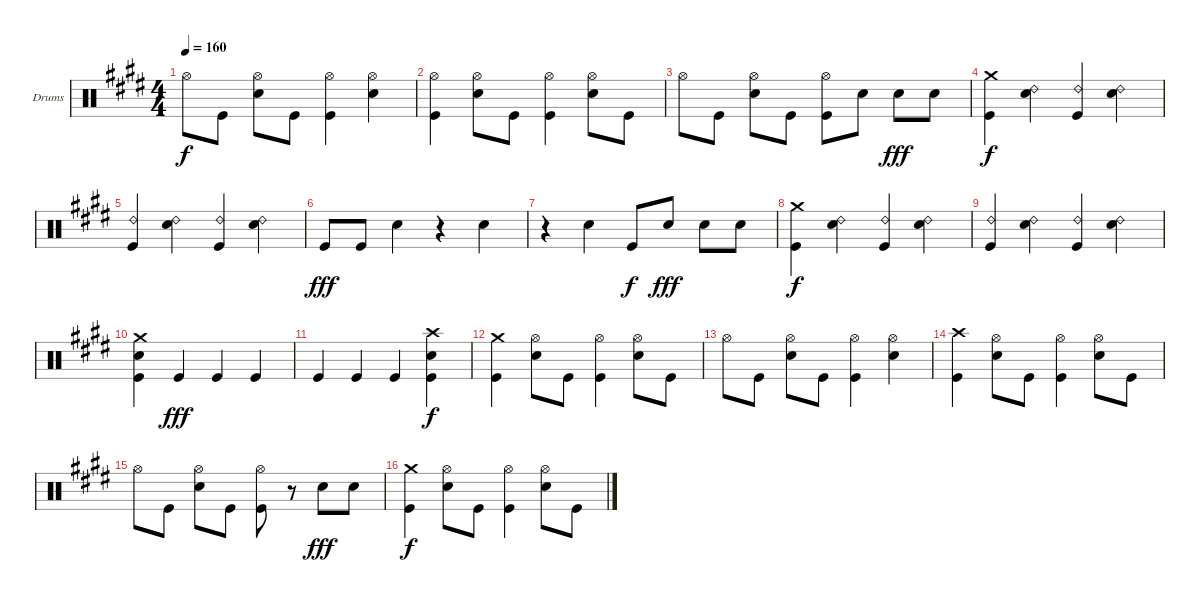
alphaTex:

\bracketExtendMode groupsimilarinstruments
\firstSystemTrackNameOrientation horizontal
\otherSystemsTrackNameOrientation horizontal
\track ("Drumkit" "Drums") {instrument percussion}
\staff {score}
\articulation defaults
\ts (4 4)
\tempo 160
\clef neutral
\ks e "Hi-Hat (open)".8{dy f} "Kick (hit)".8
("Hi-Hat (open)" "Snare (hit) 2").8 "Kick (hit)".8 ("Hi-Hat (open)" "Kick (hit)").4 ("Hi-Hat (open)" "Snare (hit) 2").4 |
("Hi-Hat (open)" "Kick (hit)").4 ("Hi-Hat (open)" "Snare (hit) 2").8 "Kick (hit)".8 ("Hi-Hat (open)" "Kick (hit)").4 ("Hi-Hat (open)" "Snare (hit) 2").8 "Kick (hit)".8 |
"Hi-Hat (open)".8 "Kick (hit)".8 ("Hi-Hat (open)" "Snare (hit) 2").8 "Kick (hit)".8 ("Hi-Hat (open)" "Kick (hit)").8 "Snare (hit) 2".8 "Snare (hit) 2".8{dy fff} "Snare (hit) 2".8 |
("Crash medium (hit)" "Kick (hit)").4{dy f} ("Ride (bell) 2" "Snare (hit) 2").4 ("Ride (bell) 2" "Kick (hit)").4 ("Ride (bell) 2" "Snare (hit) 2").4 |
("Ride (bell) 2" "Kick (hit)").4 ("Ride (bell) 2" "Snare (hit) 2").4 ("Ride (bell) 2" "Kick (hit)").4 ("Ride (bell) 2" "Snare (hit) 2").4 |
"Kick (hit)".8{dy fff} "Kick (hit)".8 "Snare (hit) 2".4 r.4 "Snare (hit) 2".4 |
r.4 "Snare (hit) 2".4 "Kick (hit)".8{dy f} "Snare (hit) 2".8{dy fff} "Snare (hit) 2".8 "Snare (hit) 2".8 |
("Crash medium (hit)" "Kick (hit)").4{dy f} ("Ride (bell) 2" "Snare (hit) 2").4 ("Ride (bell) 2" "Kick (hit)").4 ("Ride (bell) 2" "Snare (hit) 2").4 |
("Ride (bell) 2" "Kick (hit)").4 ("Ride (bell) 2" "Snare (hit) 2").4 ("Ride (bell) 2" "Kick (hit)").4 ("Ride (bell) 2" "Snare (hit) 2").4 |
("Crash medium (hit)" "Snare (hit) 2" "Kick (hit)").4 "Kick (hit)".4{dy fff} "Kick (hit)".4 "Kick (hit)".4 |
"Kick (hit)".4 "Kick (hit)".4 "Kick (hit)".4 ("Crash high (hit)" "Snare (hit) 2" "Kick (hit)").4{dy f} |
("Crash medium (hit)" "Kick (hit)").4 ("Hi-Hat (open)" "Snare (hit) 2").8 "Kick (hit)".8 ("Hi-Hat (open)" "Kick (hit)").4 ("Hi-Hat (open)" "Snare (hit) 2").8 "Kick (hit)".8 |
"Hi-Hat (open)".8 "Kick (hit)".8 ("Hi-Hat (open)" "Snare (hit) 2").8 "Kick (hit)".8 ("Hi-Hat (open)" "Kick (hit)").4 ("Hi-Hat (open)" "Snare (hit) 2").4 |
("Crash high (hit)" "Kick (hit)").4 ("Hi-Hat (open)" "Snare (hit) 2").8 "Kick (hit)".8 ("Hi-Hat (open)" "Kick (hit)").4 ("Hi-Hat (open)" "Snare (hit) 2").8 "Kick (hit)".8 |
"Hi-Hat (open)".8 "Kick (hit)".8 ("Hi-Hat (open)" "Snare (hit) 2").8 "Kick (hit)".8 ("Hi-Hat (open)" "Kick (hit)").8 r.8 "Snare (hit) 2".8{dy fff} "Snare (hit) 2".8 |
("Crash medium (hit)" "Kick (hit)").4{dy f} ("Hi-Hat (open)" "Snare (hit) 2").8 "Kick (hit)".8 ("Hi-Hat (open)" "Kick (hit)").4 ("Hi-Hat (open)" "Snare (hit) 2").8 "Kick (hit)".8
